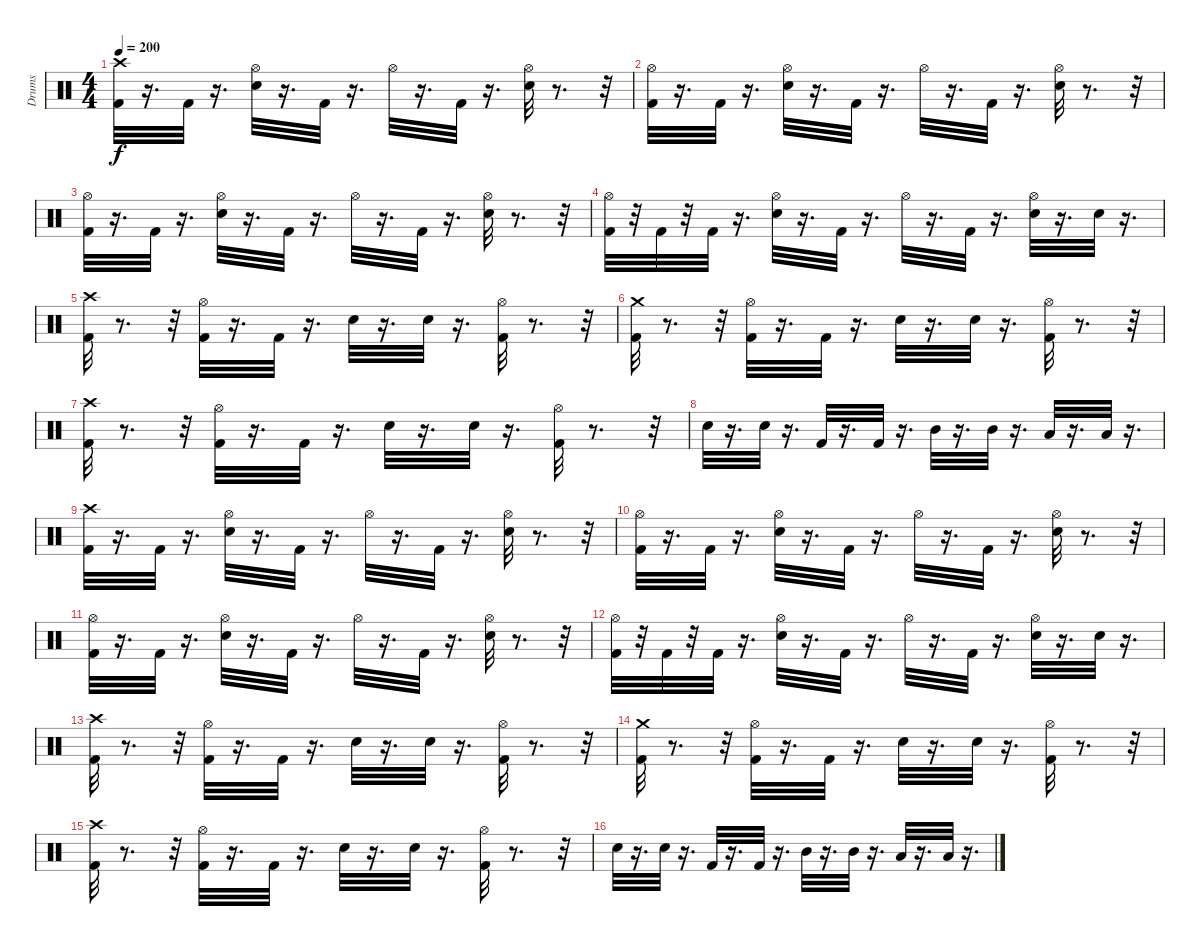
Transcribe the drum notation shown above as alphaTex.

\track ("Drums" "Drums") {instrument percussion}
\staff {score}
\articulation defaults
\ts (4 4)
\tempo 200
\clef neutral
\ks c
("Crash high (hit)" "Kick (hit) 2").32{dy f} r.16{d} "Kick (hit) 2".32 r.16{d} ("Hi-Hat (open)" "Electric Snare (hit)").32 r.16{d} "Kick (hit) 2".32 r.16{d} "Hi-Hat (open)".32 r.16{d} "Kick (hit) 2".32 r.16{d} ("Hi-Hat (open)" "Electric Snare (hit)").32 r.8{d} r.32 |
("Hi-Hat (open)" "Kick (hit) 2").32 r.16{d} "Kick (hit) 2".32 r.16{d} ("Hi-Hat (open)" "Electric Snare (hit)").32 r.16{d} "Kick (hit) 2".32 r.16{d} "Hi-Hat (open)".32 r.16{d} "Kick (hit) 2".32 r.16{d} ("Hi-Hat (open)" "Electric Snare (hit)").32 r.8{d} r.32 |
("Hi-Hat (open)" "Kick (hit) 2").32 r.16{d} "Kick (hit) 2".32 r.16{d} ("Hi-Hat (open)" "Electric Snare (hit)").32 r.16{d} "Kick (hit) 2".32 r.16{d} "Hi-Hat (open)".32 r.16{d} "Kick (hit) 2".32 r.16{d} ("Hi-Hat (open)" "Electric Snare (hit)").32 r.8{d} r.32 |
("Hi-Hat (open)" "Kick (hit) 2").32 r.32 "Kick (hit) 2".32 r.32 "Kick (hit) 2".32 r.16{d} ("Hi-Hat (open)" "Electric Snare (hit)").32 r.16{d} "Kick (hit) 2".32 r.16{d} "Hi-Hat (open)".32 r.16{d} "Kick (hit) 2".32 r.16{d} ("Hi-Hat (open)" "Electric Snare (hit)").32 r.16{d} "Electric Snare (hit)".32 r.16{d} |
("Crash high (hit)" "Kick (hit) 2").32 r.8{d} r.32 ("Hi-Hat (open)" "Kick (hit) 2").32 r.16{d} "Kick (hit) 2".32 r.16{d} "Electric Snare (hit)".32 r.16{d} "Electric Snare (hit)".32 r.16{d} ("Kick (hit) 2" "Hi-Hat (open)").32 r.8{d} r.32 |
("Crash medium (hit)" "Kick (hit) 2").32 r.8{d} r.32 ("Hi-Hat (open)" "Kick (hit) 2").32 r.16{d} "Kick (hit) 2".32 r.16{d} "Electric Snare (hit)".32 r.16{d} "Electric Snare (hit)".32 r.16{d} ("Hi-Hat (open)" "Kick (hit) 2").32 r.8{d} r.32 |
("Crash high (hit)" "Kick (hit) 2").32 r.8{d} r.32 ("Hi-Hat (open)" "Kick (hit) 2").32 r.16{d} "Kick (hit) 2".32 r.16{d} "Electric Snare (hit)".32 r.16{d} "Electric Snare (hit)".32 r.16{d} ("Hi-Hat (open)" "Kick (hit) 2").32 r.8{d} r.32 |
"Electric Snare (hit)".32 r.16{d} "Electric Snare (hit)".32 r.16{d} "Kick (hit) 2".32 r.16{d} "Kick (hit) 2".32 r.16{d} "Mid Tom (hit)".32 r.16{d} "Mid Tom (hit)".32 r.16{d} "Low Tom (hit)".32 r.16{d} "Low Tom (hit)".32 r.16{d} |
("Crash high (hit)" "Kick (hit) 2").32 r.16{d} "Kick (hit) 2".32 r.16{d} ("Hi-Hat (open)" "Electric Snare (hit)").32 r.16{d} "Kick (hit) 2".32 r.16{d} "Hi-Hat (open)".32 r.16{d} "Kick (hit) 2".32 r.16{d} ("Hi-Hat (open)" "Electric Snare (hit)").32 r.8{d} r.32 |
("Hi-Hat (open)" "Kick (hit) 2").32 r.16{d} "Kick (hit) 2".32 r.16{d} ("Hi-Hat (open)" "Electric Snare (hit)").32 r.16{d} "Kick (hit) 2".32 r.16{d} "Hi-Hat (open)".32 r.16{d} "Kick (hit) 2".32 r.16{d} ("Hi-Hat (open)" "Electric Snare (hit)").32 r.8{d} r.32 |
("Hi-Hat (open)" "Kick (hit) 2").32 r.16{d} "Kick (hit) 2".32 r.16{d} ("Hi-Hat (open)" "Electric Snare (hit)").32 r.16{d} "Kick (hit) 2".32 r.16{d} "Hi-Hat (open)".32 r.16{d} "Kick (hit) 2".32 r.16{d} ("Hi-Hat (open)" "Electric Snare (hit)").32 r.8{d} r.32 |
("Hi-Hat (open)" "Kick (hit) 2").32 r.32 "Kick (hit) 2".32 r.32 "Kick (hit) 2".32 r.16{d} ("Hi-Hat (open)" "Electric Snare (hit)").32 r.16{d} "Kick (hit) 2".32 r.16{d} "Hi-Hat (open)".32 r.16{d} "Kick (hit) 2".32 r.16{d} ("Hi-Hat (open)" "Electric Snare (hit)").32 r.16{d} "Electric Snare (hit)".32 r.16{d} |
("Crash high (hit)" "Kick (hit) 2").32 r.8{d} r.32 ("Hi-Hat (open)" "Kick (hit) 2").32 r.16{d} "Kick (hit) 2".32 r.16{d} "Electric Snare (hit)".32 r.16{d} "Electric Snare (hit)".32 r.16{d} ("Kick (hit) 2" "Hi-Hat (open)").32 r.8{d} r.32 |
("Crash medium (hit)" "Kick (hit) 2").32 r.8{d} r.32 ("Hi-Hat (open)" "Kick (hit) 2").32 r.16{d} "Kick (hit) 2".32 r.16{d} "Electric Snare (hit)".32 r.16{d} "Electric Snare (hit)".32 r.16{d} ("Hi-Hat (open)" "Kick (hit) 2").32 r.8{d} r.32 |
("Crash high (hit)" "Kick (hit) 2").32 r.8{d} r.32 ("Hi-Hat (open)" "Kick (hit) 2").32 r.16{d} "Kick (hit) 2".32 r.16{d} "Electric Snare (hit)".32 r.16{d} "Electric Snare (hit)".32 r.16{d} ("Hi-Hat (open)" "Kick (hit) 2").32 r.8{d} r.32 |
"Electric Snare (hit)".32 r.16{d} "Electric Snare (hit)".32 r.16{d} "Kick (hit) 2".32 r.16{d} "Kick (hit) 2".32 r.16{d} "Mid Tom (hit)".32 r.16{d} "Mid Tom (hit)".32 r.16{d} "Low Tom (hit)".32 r.16{d} "Low Tom (hit)".32 r.16{d}
